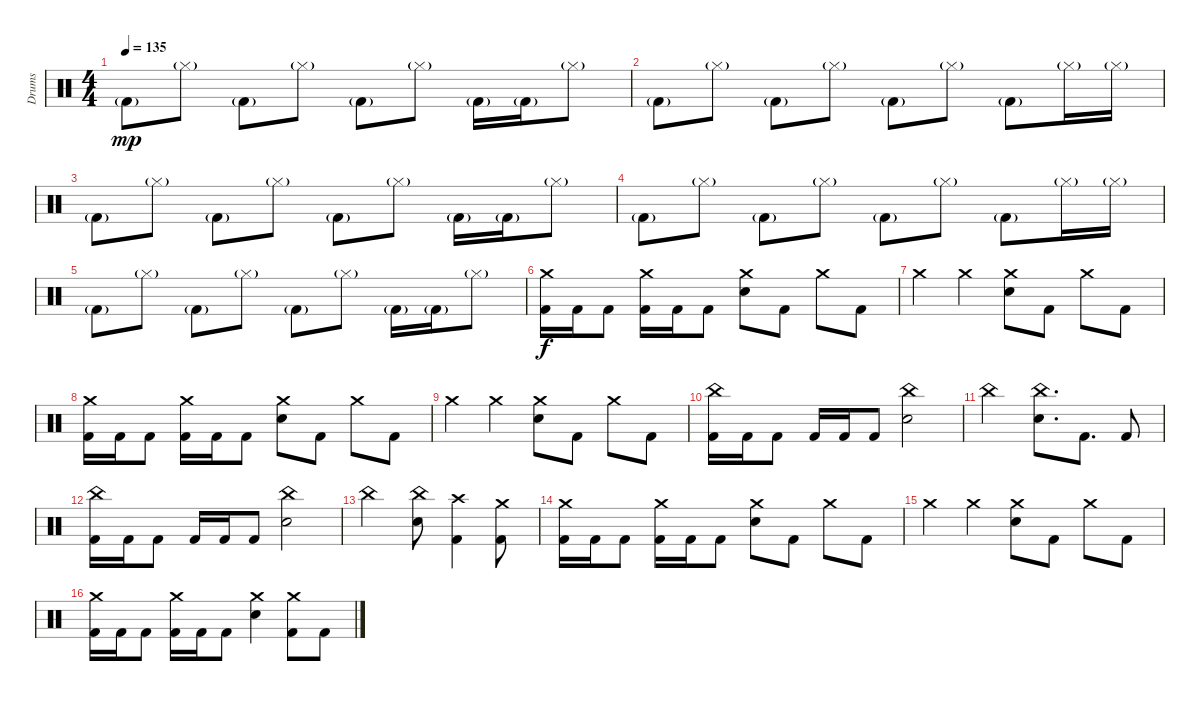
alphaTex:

\track ("Drums" "Drums") {instrument percussion}
\staff {score}
\articulation defaults
\ts (4 4)
\tempo 135
\clef neutral
\ks c "Kick (hit) 2"{g}.8{dy mp} "Hi-Hat (closed)"{g}.8 "Kick (hit) 2"{g}.8 "Hi-Hat (closed)"{g}.8 "Kick (hit) 2"{g}.8 "Hi-Hat (closed)"{g}.8 "Kick (hit) 2"{g}.16 "Kick (hit) 2"{g}.16 "Hi-Hat (closed)"{g}.8
|
"Kick (hit) 2"{g}.8 "Hi-Hat (closed)"{g}.8 "Kick (hit) 2"{g}.8 "Hi-Hat (closed)"{g}.8 "Kick (hit) 2"{g}.8 "Hi-Hat (closed)"{g}.8 "Kick (hit) 2"{g}.8 "Hi-Hat (closed)"{g}.16 "Hi-Hat (closed)"{g}.16 |
"Kick (hit) 2"{g}.8 "Hi-Hat (closed)"{g}.8 "Kick (hit) 2"{g}.8 "Hi-Hat (closed)"{g}.8 "Kick (hit) 2"{g}.8 "Hi-Hat (closed)"{g}.8 "Kick (hit) 2"{g}.16 "Kick (hit) 2"{g}.16 "Hi-Hat (closed)"{g}.8 |
"Kick (hit) 2"{g}.8 "Hi-Hat (closed)"{g}.8 "Kick (hit) 2"{g}.8 "Hi-Hat (closed)"{g}.8 "Kick (hit) 2"{g}.8 "Hi-Hat (closed)"{g}.8 "Kick (hit) 2"{g}.8 "Hi-Hat (closed)"{g}.16 "Hi-Hat (closed)"{g}.16 |
"Kick (hit) 2"{g}.8 "Hi-Hat (closed)"{g}.8 "Kick (hit) 2"{g}.8 "Hi-Hat (closed)"{g}.8 "Kick (hit) 2"{g}.8 "Hi-Hat (closed)"{g}.8 "Kick (hit) 2"{g}.16 "Kick (hit) 2"{g}.16 "Hi-Hat (closed)"{g}.8 |
("Crash medium (hit)" "Kick (hit) 2").16{dy f volume 13} "Kick (hit) 2".16 "Kick (hit) 2".8 ("Crash medium (hit)" "Kick (hit) 2").16 "Kick (hit) 2".16 "Kick (hit) 2".8 ("Crash medium (hit)" "Electric Snare (hit)").8 "Kick (hit) 2".8 "Crash medium (hit)".8 "Kick (hit) 2".8 |
"Crash medium (hit)".4 "Crash medium (hit)".4 ("Crash medium (hit)" "Electric Snare (hit)").8 "Kick (hit) 2".8 "Crash medium (hit)".8 "Kick (hit) 2".8 |
("Crash medium (hit)" "Kick (hit) 2").16 "Kick (hit) 2".16 "Kick (hit) 2".8 ("Crash medium (hit)" "Kick (hit) 2").16 "Kick (hit) 2".16 "Kick (hit) 2".8 ("Crash medium (hit)" "Electric Snare (hit)").8 "Kick (hit) 2".8 "Crash medium (hit)".8 "Kick (hit) 2".8 |
"Crash medium (hit)".4 "Crash medium (hit)".4 ("Crash medium (hit)" "Electric Snare (hit)").8 "Kick (hit) 2".8 "Crash medium (hit)".8 "Kick (hit) 2".8 |
("China (hit)" "Kick (hit) 2").16 "Kick (hit) 2".16 "Kick (hit) 2".8 "Kick (hit) 2".16 "Kick (hit) 2".16 "Kick (hit) 2".8 ("China (hit)" "Electric Snare (hit)").2 |
"China (hit)".2 ("China (hit)" "Electric Snare (hit)").8{d} "Kick (hit) 2".8{d} "Kick (hit) 2".8 |
("China (hit)" "Kick (hit) 2").16 "Kick (hit) 2".16 "Kick (hit) 2".8 "Kick (hit) 2".16 "Kick (hit) 2".16 "Kick (hit) 2".8 ("China (hit)" "Electric Snare (hit)").2 |
"China (hit)".2 ("China (hit)" "Electric Snare (hit)").8 ("Crash high (hit)" "Kick (hit) 2").4 ("Crash medium (hit)" "Kick (hit) 2").8 |
("Crash medium (hit)" "Kick (hit) 2").16 "Kick (hit) 2".16 "Kick (hit) 2".8 ("Crash medium (hit)" "Kick (hit) 2").16 "Kick (hit) 2".16 "Kick (hit) 2".8 ("Crash medium (hit)" "Electric Snare (hit)").8 "Kick (hit) 2".8 "Crash medium (hit)".8 "Kick (hit) 2".8 |
"Crash medium (hit)".4 "Crash medium (hit)".4 ("Crash medium (hit)" "Electric Snare (hit)").8 "Kick (hit) 2".8 "Crash medium (hit)".8 "Kick (hit) 2".8 |
("Crash medium (hit)" "Kick (hit) 2").16 "Kick (hit) 2".16 "Kick (hit) 2".8 ("Crash medium (hit)" "Kick (hit) 2").16 "Kick (hit) 2".16 "Kick (hit) 2".8 ("Crash medium (hit)" "Electric Snare (hit)").4 ("Crash medium (hit)" "Kick (hit) 2").8 "Kick (hit) 2".8
